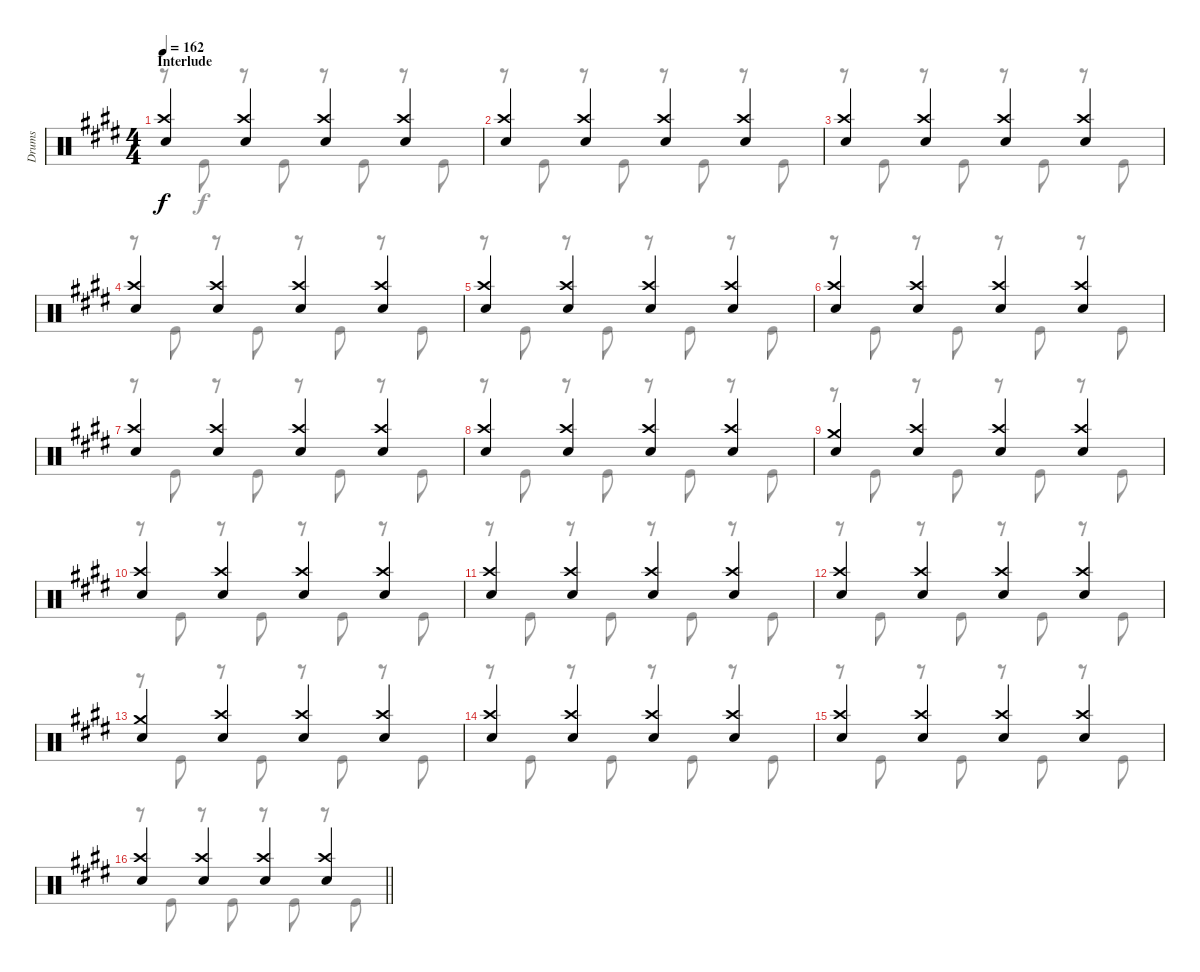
\track ("Drums" "Drums") {instrument percussion}
\staff {score}
\articulation defaults
\voice
\ts (4 4)
\section ("" "Interlude")
\tempo 162
\clef neutral
\ks e
("Crash high (hit)" "Electric Snare (hit)").4{dy f} ("Crash high (hit)" "Electric Snare (hit)").4 ("Crash high (hit)" "Electric Snare (hit)").4 ("Crash high (hit)" "Electric Snare (hit)").4 |
("Crash high (hit)" "Electric Snare (hit)").4 ("Crash high (hit)" "Electric Snare (hit)").4 ("Crash high (hit)" "Electric Snare (hit)").4 ("Crash high (hit)" "Electric Snare (hit)").4 |
("Crash high (hit)" "Electric Snare (hit)").4 ("Crash high (hit)" "Electric Snare (hit)").4 ("Crash high (hit)" "Electric Snare (hit)").4 ("Crash high (hit)" "Electric Snare (hit)").4 |
("Crash high (hit)" "Electric Snare (hit)").4 ("Crash high (hit)" "Electric Snare (hit)").4 ("Crash high (hit)" "Electric Snare (hit)").4 ("Crash high (hit)" "Electric Snare (hit)").4 |
("Crash high (hit)" "Electric Snare (hit)").4 ("Crash high (hit)" "Electric Snare (hit)").4 ("Crash high (hit)" "Electric Snare (hit)").4 ("Crash high (hit)" "Electric Snare (hit)").4 |
("Crash high (hit)" "Electric Snare (hit)").4 ("Crash high (hit)" "Electric Snare (hit)").4 ("Crash high (hit)" "Electric Snare (hit)").4 ("Crash high (hit)" "Electric Snare (hit)").4 |
("Crash high (hit)" "Electric Snare (hit)").4 ("Crash high (hit)" "Electric Snare (hit)").4 ("Crash high (hit)" "Electric Snare (hit)").4 ("Crash high (hit)" "Electric Snare (hit)").4 |
("Crash high (hit)" "Electric Snare (hit)").4 ("Crash high (hit)" "Electric Snare (hit)").4 ("Crash high (hit)" "Electric Snare (hit)").4 ("Crash high (hit)" "Electric Snare (hit)").4 |
("Crash medium (hit)" "Electric Snare (hit)").4 ("Crash high (hit)" "Electric Snare (hit)").4 ("Crash high (hit)" "Electric Snare (hit)").4 ("Crash high (hit)" "Electric Snare (hit)").4 |
("Crash high (hit)" "Electric Snare (hit)").4 ("Crash high (hit)" "Electric Snare (hit)").4 ("Crash high (hit)" "Electric Snare (hit)").4 ("Crash high (hit)" "Electric Snare (hit)").4 |
("Crash high (hit)" "Electric Snare (hit)").4 ("Crash high (hit)" "Electric Snare (hit)").4 ("Crash high (hit)" "Electric Snare (hit)").4 ("Crash high (hit)" "Electric Snare (hit)").4 |
("Crash high (hit)" "Electric Snare (hit)").4 ("Crash high (hit)" "Electric Snare (hit)").4 ("Crash high (hit)" "Electric Snare (hit)").4 ("Crash high (hit)" "Electric Snare (hit)").4 |
("Crash medium (hit)" "Electric Snare (hit)").4 ("Crash high (hit)" "Electric Snare (hit)").4 ("Crash high (hit)" "Electric Snare (hit)").4 ("Crash high (hit)" "Electric Snare (hit)").4 |
("Crash high (hit)" "Electric Snare (hit)").4 ("Crash high (hit)" "Electric Snare (hit)").4 ("Crash high (hit)" "Electric Snare (hit)").4 ("Crash high (hit)" "Electric Snare (hit)").4 |
("Crash high (hit)" "Electric Snare (hit)").4 ("Crash high (hit)" "Electric Snare (hit)").4 ("Crash high (hit)" "Electric Snare (hit)").4 ("Crash high (hit)" "Electric Snare (hit)").4 |
\barLineRight lightlight
("Crash high (hit)" "Electric Snare (hit)").4 ("Crash high (hit)" "Electric Snare (hit)").4 ("Crash high (hit)" "Electric Snare (hit)").4 ("Crash high (hit)" "Electric Snare (hit)").4
\voice
\clef neutral
\ottava regular
\simile none
\ks e
r.8{dy f} "Kick (hit)".8 r.8 "Kick (hit)".8 r.8 "Kick (hit)".8 r.8 "Kick (hit)".8 |
r.8 "Kick (hit)".8 r.8 "Kick (hit)".8 r.8 "Kick (hit)".8 r.8 "Kick (hit)".8 |
r.8 "Kick (hit)".8 r.8 "Kick (hit)".8 r.8 "Kick (hit)".8 r.8 "Kick (hit)".8 |
r.8 "Kick (hit)".8 r.8 "Kick (hit)".8 r.8 "Kick (hit)".8 r.8 "Kick (hit)".8 |
r.8 "Kick (hit)".8 r.8 "Kick (hit)".8 r.8 "Kick (hit)".8 r.8 "Kick (hit)".8 |
r.8 "Kick (hit)".8 r.8 "Kick (hit)".8 r.8 "Kick (hit)".8 r.8 "Kick (hit)".8 |
r.8 "Kick (hit)".8 r.8 "Kick (hit)".8 r.8 "Kick (hit)".8 r.8 "Kick (hit)".8 |
r.8 "Kick (hit)".8 r.8 "Kick (hit)".8 r.8 "Kick (hit)".8 r.8 "Kick (hit)".8 |
r.8 "Kick (hit)".8 r.8 "Kick (hit)".8 r.8 "Kick (hit)".8 r.8 "Kick (hit)".8 |
r.8 "Kick (hit)".8 r.8 "Kick (hit)".8 r.8 "Kick (hit)".8 r.8 "Kick (hit)".8 |
r.8 "Kick (hit)".8 r.8 "Kick (hit)".8 r.8 "Kick (hit)".8 r.8 "Kick (hit)".8 |
r.8 "Kick (hit)".8 r.8 "Kick (hit)".8 r.8 "Kick (hit)".8 r.8 "Kick (hit)".8 |
r.8 "Kick (hit)".8 r.8 "Kick (hit)".8 r.8 "Kick (hit)".8 r.8 "Kick (hit)".8 |
r.8 "Kick (hit)".8 r.8 "Kick (hit)".8 r.8 "Kick (hit)".8 r.8 "Kick (hit)".8 |
r.8 "Kick (hit)".8 r.8 "Kick (hit)".8 r.8 "Kick (hit)".8 r.8 "Kick (hit)".8 |
\barLineRight lightlight
r.8 "Kick (hit)".8 r.8 "Kick (hit)".8 r.8 "Kick (hit)".8 r.8 "Kick (hit)".8
